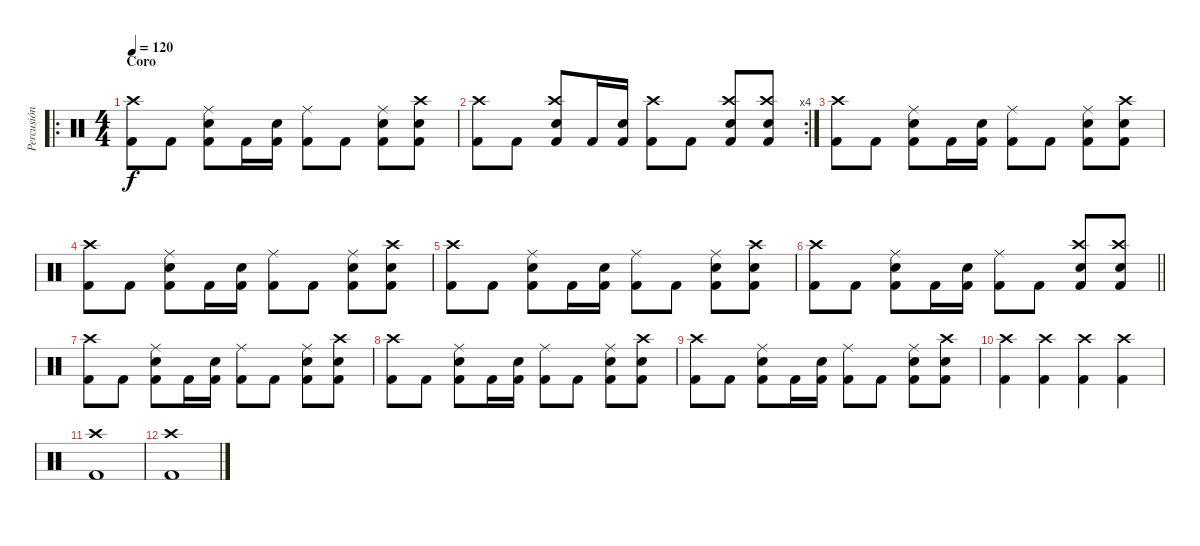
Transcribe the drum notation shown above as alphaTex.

\track ("Percusión" "Percusión") {instrument percussion}
\staff {score}
\articulation defaults
\ro
\ts (4 4)
\section ("" "Coro")
\tempo 120
\clef neutral
\ks c
("Kick (hit) 2" "Crash high (hit)").8{dy f} "Kick (hit) 2".8 ("Kick (hit) 2" "Snare (hit) 2" "Ride (middle)").8 "Kick (hit) 2".16 ("Kick (hit) 2" "Snare (hit) 2").16 ("Kick (hit) 2" "Ride (middle)").8 "Kick (hit) 2".8 ("Kick (hit) 2" "Snare (hit) 2" "Ride (middle)").8 ("Kick (hit) 2" "Snare (hit) 2" "Crash high (hit)").8 |
\rc 4
("Kick (hit) 2" "Crash high (hit)").8 "Kick (hit) 2".8 ("Kick (hit) 2" "Snare (hit) 2" "Crash high (hit)").8 "Kick (hit) 2".16 ("Kick (hit) 2" "Snare (hit) 2").16 ("Kick (hit) 2" "Crash high (hit)").8 "Kick (hit) 2".8 ("Kick (hit) 2" "Snare (hit) 2" "Crash high (hit)").8 ("Kick (hit) 2" "Snare (hit) 2" "Crash high (hit)").8 |
("Kick (hit) 2" "Crash high (hit)").8 "Kick (hit) 2".8 ("Kick (hit) 2" "Snare (hit) 2" "Ride (middle)").8 "Kick (hit) 2".16 ("Kick (hit) 2" "Snare (hit) 2").16 ("Kick (hit) 2" "Ride (middle)").8 "Kick (hit) 2".8 ("Kick (hit) 2" "Snare (hit) 2" "Ride (middle)").8 ("Kick (hit) 2" "Snare (hit) 2" "Crash high (hit)").8 |
("Kick (hit) 2" "Crash high (hit)").8 "Kick (hit) 2".8 ("Kick (hit) 2" "Snare (hit) 2" "Ride (middle)").8 "Kick (hit) 2".16 ("Kick (hit) 2" "Snare (hit) 2").16 ("Kick (hit) 2" "Ride (middle)").8 "Kick (hit) 2".8 ("Kick (hit) 2" "Snare (hit) 2" "Ride (middle)").8 ("Kick (hit) 2" "Snare (hit) 2" "Crash high (hit)").8 |
("Kick (hit) 2" "Crash high (hit)").8 "Kick (hit) 2".8 ("Kick (hit) 2" "Snare (hit) 2" "Ride (middle)").8 "Kick (hit) 2".16 ("Kick (hit) 2" "Snare (hit) 2").16 ("Kick (hit) 2" "Ride (middle)").8 "Kick (hit) 2".8 ("Kick (hit) 2" "Snare (hit) 2" "Ride (middle)").8 ("Kick (hit) 2" "Snare (hit) 2" "Crash high (hit)").8 |
\barLineRight lightlight
("Kick (hit) 2" "Crash high (hit)").8 "Kick (hit) 2".8 ("Kick (hit) 2" "Snare (hit) 2" "Ride (middle)").8 "Kick (hit) 2".16 ("Kick (hit) 2" "Snare (hit) 2").16 ("Kick (hit) 2" "Ride (middle)").8 "Kick (hit) 2".8 ("Kick (hit) 2" "Snare (hit) 2" "Crash high (hit)").8 ("Kick (hit) 2" "Snare (hit) 2" "Crash high (hit)").8 |
("Kick (hit) 2" "Crash high (hit)").8 "Kick (hit) 2".8 ("Kick (hit) 2" "Snare (hit) 2" "Ride (middle)").8 "Kick (hit) 2".16 ("Kick (hit) 2" "Snare (hit) 2").16 ("Kick (hit) 2" "Ride (middle)").8 "Kick (hit) 2".8 ("Kick (hit) 2" "Snare (hit) 2" "Ride (middle)").8 ("Kick (hit) 2" "Snare (hit) 2" "Crash high (hit)").8 |
("Kick (hit) 2" "Crash high (hit)").8 "Kick (hit) 2".8 ("Kick (hit) 2" "Snare (hit) 2" "Ride (middle)").8 "Kick (hit) 2".16 ("Kick (hit) 2" "Snare (hit) 2").16 ("Kick (hit) 2" "Ride (middle)").8 "Kick (hit) 2".8 ("Kick (hit) 2" "Snare (hit) 2" "Ride (middle)").8 ("Kick (hit) 2" "Snare (hit) 2" "Crash high (hit)").8 |
("Kick (hit) 2" "Crash high (hit)").8 "Kick (hit) 2".8 ("Kick (hit) 2" "Snare (hit) 2" "Ride (middle)").8 "Kick (hit) 2".16 ("Kick (hit) 2" "Snare (hit) 2").16 ("Kick (hit) 2" "Ride (middle)").8 "Kick (hit) 2".8 ("Kick (hit) 2" "Snare (hit) 2" "Ride (middle)").8 ("Kick (hit) 2" "Snare (hit) 2" "Crash high (hit)").8 |
("Kick (hit) 2" "Crash high (hit)").4 ("Kick (hit) 2" "Crash high (hit)").4 ("Kick (hit) 2" "Crash high (hit)").4 ("Kick (hit) 2" "Crash high (hit)").4 |
("Kick (hit) 2" "Crash high (hit)").1 |
("Kick (hit) 2" "Crash high (hit)").1
